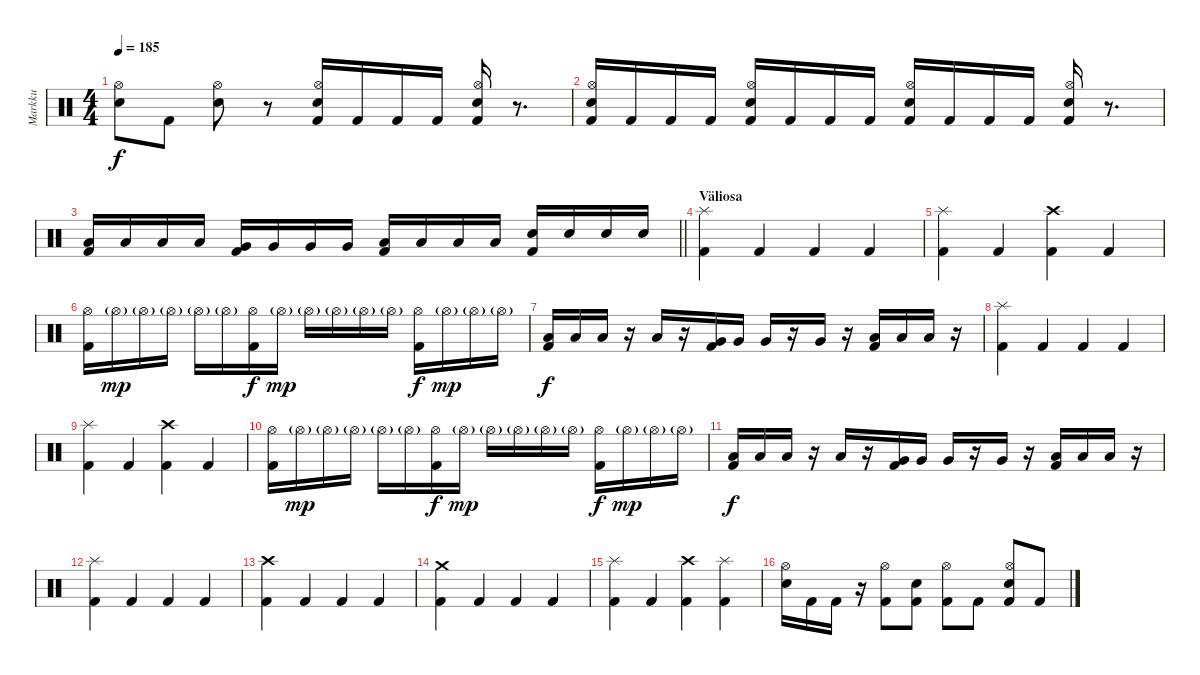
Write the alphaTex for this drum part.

\track ("Markku" "Markku") {instrument percussion}
\staff {score}
\articulation defaults
\ts (4 4)
\tempo 185
\clef neutral
\ks c
("Snare (hit) 2" "Hi-Hat (open)").8{dy f} "Kick (hit) 2".8 ("Snare (hit) 2" "Hi-Hat (open)").8 r.8 ("Kick (hit) 2" "Snare (hit) 2" "Hi-Hat (open)").16 "Kick (hit) 2".16 "Kick (hit) 2".16 "Kick (hit) 2".16 ("Kick (hit) 2" "Snare (hit) 2" "Hi-Hat (open)").16 r.8{d} |
("Kick (hit) 2" "Snare (hit) 2" "Hi-Hat (open)").16 "Kick (hit) 2".16 "Kick (hit) 2".16 "Kick (hit) 2".16 ("Kick (hit) 2" "Snare (hit) 2" "Hi-Hat (open)").16 "Kick (hit) 2".16 "Kick (hit) 2".16 "Kick (hit) 2".16 ("Kick (hit) 2" "Snare (hit) 2" "Hi-Hat (open)").16 "Kick (hit) 2".16 "Kick (hit) 2".16 "Kick (hit) 2".16 ("Kick (hit) 2" "Snare (hit) 2" "Hi-Hat (open)").16 r.8{d} |
\barLineRight lightlight
("Kick (hit) 2" "Low Tom (hit)").16 "Low Tom (hit)".16 "Low Tom (hit)".16 "Low Tom (hit)".16 ("Kick (hit) 2" "Very Low Tom (hit)").16 "Very Low Tom (hit)".16 "Very Low Tom (hit)".16 "Very Low Tom (hit)".16 ("Kick (hit) 2" "Low Floor Tom (hit)").16 "Low Floor Tom (hit)".16 "Low Floor Tom (hit)".16 "Low Floor Tom (hit)".16 ("Kick (hit) 2" "Snare (hit) 2").16 "Snare (hit) 2".16 "Snare (hit) 2".16 "Snare (hit) 2".16 |
\section ("" "Väliosa")
("Kick (hit) 2" "Splash (hit)").4 "Kick (hit) 2".4 "Kick (hit) 2".4 "Kick (hit) 2".4 |
("Kick (hit) 2" "Splash (hit)").4 "Kick (hit) 2".4 ("Kick (hit) 2" "Crash high (hit)").4 "Kick (hit) 2".4 |
("Kick (hit) 2" "Hi-Hat (open)").16 "Hi-Hat (open)"{g}.16{dy mp} "Hi-Hat (open)"{g}.16 "Hi-Hat (open)"{g}.16 "Hi-Hat (open)"{g}.16 "Hi-Hat (open)"{g}.16 ("Kick (hit) 2" "Hi-Hat (open)").16{dy f} "Hi-Hat (open)"{g}.16{dy mp} "Hi-Hat (open)"{g}.16 "Hi-Hat (open)"{g}.16 "Hi-Hat (open)"{g}.16 "Hi-Hat (open)"{g}.16 ("Kick (hit) 2" "Hi-Hat (open)").16{dy f} "Hi-Hat (open)"{g}.16{dy mp} "Hi-Hat (open)"{g}.16 "Hi-Hat (open)"{g}.16 |
("Kick (hit) 2" "Low Tom (hit)").16{dy f} "Low Tom (hit)".16 "Low Tom (hit)".16 r.16 "Low Tom (hit)".16 r.16 ("Kick (hit) 2" "Very Low Tom (hit)").16 "Very Low Tom (hit)".16 "Very Low Tom (hit)".16 r.16 "Very Low Tom (hit)".16 r.16 ("Kick (hit) 2" "Low Floor Tom (hit)").16 "Low Floor Tom (hit)".16 "Low Floor Tom (hit)".16 r.16 |
("Kick (hit) 2" "Splash (hit)").4 "Kick (hit) 2".4 "Kick (hit) 2".4 "Kick (hit) 2".4 |
("Kick (hit) 2" "Splash (hit)").4 "Kick (hit) 2".4 ("Kick (hit) 2" "Crash high (hit)").4 "Kick (hit) 2".4 |
("Kick (hit) 2" "Hi-Hat (open)").16 "Hi-Hat (open)"{g}.16{dy mp} "Hi-Hat (open)"{g}.16 "Hi-Hat (open)"{g}.16 "Hi-Hat (open)"{g}.16 "Hi-Hat (open)"{g}.16 ("Kick (hit) 2" "Hi-Hat (open)").16{dy f} "Hi-Hat (open)"{g}.16{dy mp} "Hi-Hat (open)"{g}.16 "Hi-Hat (open)"{g}.16 "Hi-Hat (open)"{g}.16 "Hi-Hat (open)"{g}.16 ("Kick (hit) 2" "Hi-Hat (open)").16{dy f} "Hi-Hat (open)"{g}.16{dy mp} "Hi-Hat (open)"{g}.16 "Hi-Hat (open)"{g}.16 |
("Kick (hit) 2" "Low Tom (hit)").16{dy f} "Low Tom (hit)".16 "Low Tom (hit)".16 r.16 "Low Tom (hit)".16 r.16 ("Kick (hit) 2" "Very Low Tom (hit)").16 "Very Low Tom (hit)".16 "Very Low Tom (hit)".16 r.16 "Very Low Tom (hit)".16 r.16 ("Kick (hit) 2" "Low Floor Tom (hit)").16 "Low Floor Tom (hit)".16 "Low Floor Tom (hit)".16 r.16 |
("Kick (hit) 2" "Splash (hit)").4 "Kick (hit) 2".4 "Kick (hit) 2".4 "Kick (hit) 2".4 |
("Kick (hit) 2" "Crash high (hit)").4 "Kick (hit) 2".4 "Kick (hit) 2".4 "Kick (hit) 2".4 |
("Kick (hit) 2" "Crash medium (hit)").4 "Kick (hit) 2".4 "Kick (hit) 2".4 "Kick (hit) 2".4 |
("Kick (hit) 2" "Splash (hit)").4 "Kick (hit) 2".4 ("Kick (hit) 2" "Crash high (hit)").4 ("Kick (hit) 2" "Splash (hit)").4 |
("Snare (hit) 2" "Hi-Hat (open)").16 "Kick (hit) 2".16 "Kick (hit) 2".16 r.16 ("Kick (hit) 2" "Hi-Hat (open)").8 ("Kick (hit) 2" "Snare (hit) 2").8 ("Kick (hit) 2" "Hi-Hat (open)").8 "Kick (hit) 2".8 ("Kick (hit) 2" "Snare (hit) 2" "Hi-Hat (open)").8 "Kick (hit) 2".8
